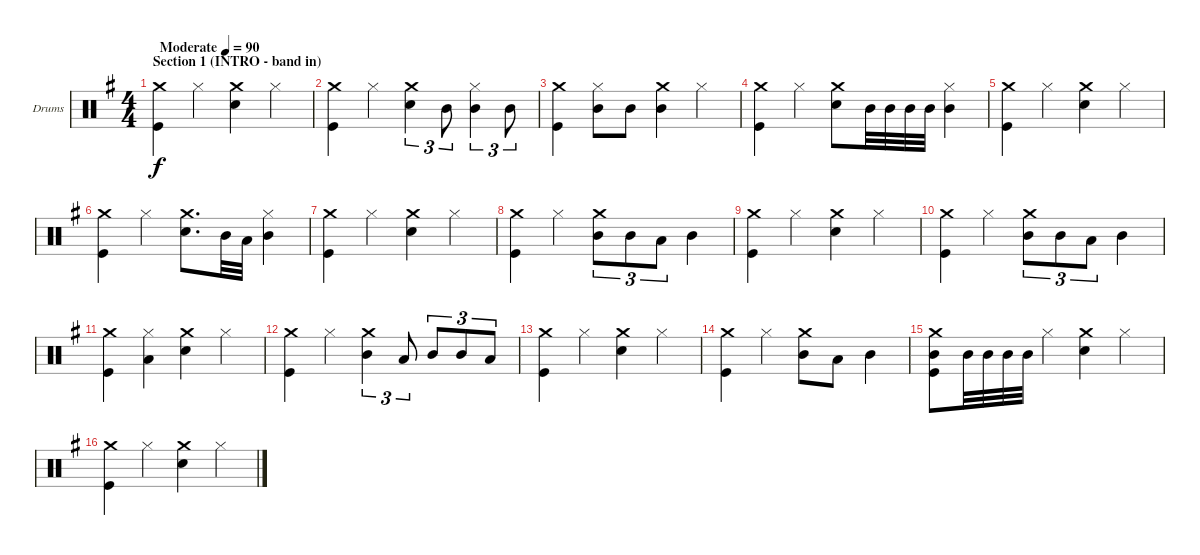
\bracketExtendMode groupsimilarinstruments
\firstSystemTrackNameOrientation horizontal
\otherSystemsTrackNameOrientation horizontal
\track ("Drumkit" "Drums") {instrument percussion}
\staff {score}
\articulation defaults
\ts (4 4)
\beaming (8 2 2 2 2)
\section ("" "Section 1 (INTRO - band in)")
\tempo (90 "Moderate")
\clef neutral
\ks eminor
("Crash medium (hit)" "Kick (hit)").4{dy f} "Hi-Hat (closed)".4 ("Crash medium (hit)" "Snare (hit) 2").4 "Hi-Hat (closed)".4 |
("Crash medium (hit)" "Kick (hit)").4 "Hi-Hat (closed)".4 ("Crash medium (hit)" "Snare (hit) 2").4{tu (3 2)} "Mid Tom (hit)".8{tu (3 2)} ("Hi-Hat (closed)" "Mid Tom (hit)").4{tu (3 2)} "Mid Tom (hit)".8{tu (3 2)} |
("Crash medium (hit)" "Kick (hit)").4 ("Hi-Hat (closed)" "Mid Tom (hit)").8 "Mid Tom (hit)".8 ("Crash medium (hit)" "Mid Tom (hit)").4 "Hi-Hat (closed)".4 |
("Crash medium (hit)" "Kick (hit)").4 "Hi-Hat (closed)".4 ("Crash medium (hit)" "Snare (hit) 2").8 "Mid Tom (hit)".32 "Mid Tom (hit)".32 "Mid Tom (hit)".32 "Mid Tom (hit)".32 ("Hi-Hat (closed)" "Mid Tom (hit)").4 |
("Crash medium (hit)" "Kick (hit)").4 "Hi-Hat (closed)".4 ("Crash medium (hit)" "Snare (hit) 2").4 "Hi-Hat (closed)".4 |
("Crash medium (hit)" "Kick (hit)").4 "Hi-Hat (closed)".4 ("Crash medium (hit)" "Snare (hit) 2").8{d} "Mid Tom (hit)".32 "Low Tom (hit)".32 ("Hi-Hat (closed)" "Mid Tom (hit)").4 |
("Crash medium (hit)" "Kick (hit)").4 "Hi-Hat (closed)".4 ("Crash medium (hit)" "Snare (hit) 2").4 "Hi-Hat (closed)".4 |
("Crash medium (hit)" "Kick (hit)").4 "Hi-Hat (closed)".4 ("Crash medium (hit)" "Mid Tom (hit)").8{tu (3 2)} "Mid Tom (hit)".8{tu (3 2)} "Low Tom (hit)".8{tu (3 2)} "Mid Tom (hit)".4 |
("Crash medium (hit)" "Kick (hit)").4 "Hi-Hat (closed)".4 ("Crash medium (hit)" "Snare (hit) 2").4 "Hi-Hat (closed)".4 |
("Crash medium (hit)" "Kick (hit)").4 "Hi-Hat (closed)".4 ("Crash medium (hit)" "Mid Tom (hit)").8{tu (3 2)} "Mid Tom (hit)".8{tu (3 2)} "Low Tom (hit)".8{tu (3 2)} "Mid Tom (hit)".4 |
("Crash medium (hit)" "Kick (hit)").4 ("Hi-Hat (closed)" "Low Tom (hit)").4 ("Crash medium (hit)" "Snare (hit) 2").4 "Hi-Hat (closed)".4 |
("Crash medium (hit)" "Kick (hit)").4 "Hi-Hat (closed)".4 ("Crash medium (hit)" "Mid Tom (hit)").4{tu (3 2)} "Low Tom (hit)".8{tu (3 2)} "Mid Tom (hit)".8{tu (3 2)} "Mid Tom (hit)".8{tu (3 2)} "Low Tom (hit)".8{tu (3 2)} |
("Crash medium (hit)" "Kick (hit)").4 "Hi-Hat (closed)".4 ("Crash medium (hit)" "Snare (hit) 2").4 "Hi-Hat (closed)".4 |
("Crash medium (hit)" "Kick (hit)").4 "Hi-Hat (closed)".4 ("Crash medium (hit)" "Mid Tom (hit)").8 "Low Tom (hit)".8 "Mid Tom (hit)".4 |
("Crash medium (hit)" "Mid Tom (hit)" "Kick (hit)").8 "Mid Tom (hit)".32 "Mid Tom (hit)".32 "Mid Tom (hit)".32 "Mid Tom (hit)".32 "Hi-Hat (closed)".4 ("Crash medium (hit)" "Snare (hit) 2").4 "Hi-Hat (closed)".4 |
("Crash medium (hit)" "Kick (hit)").4 "Hi-Hat (closed)".4 ("Crash medium (hit)" "Snare (hit) 2").4 "Hi-Hat (closed)".4
